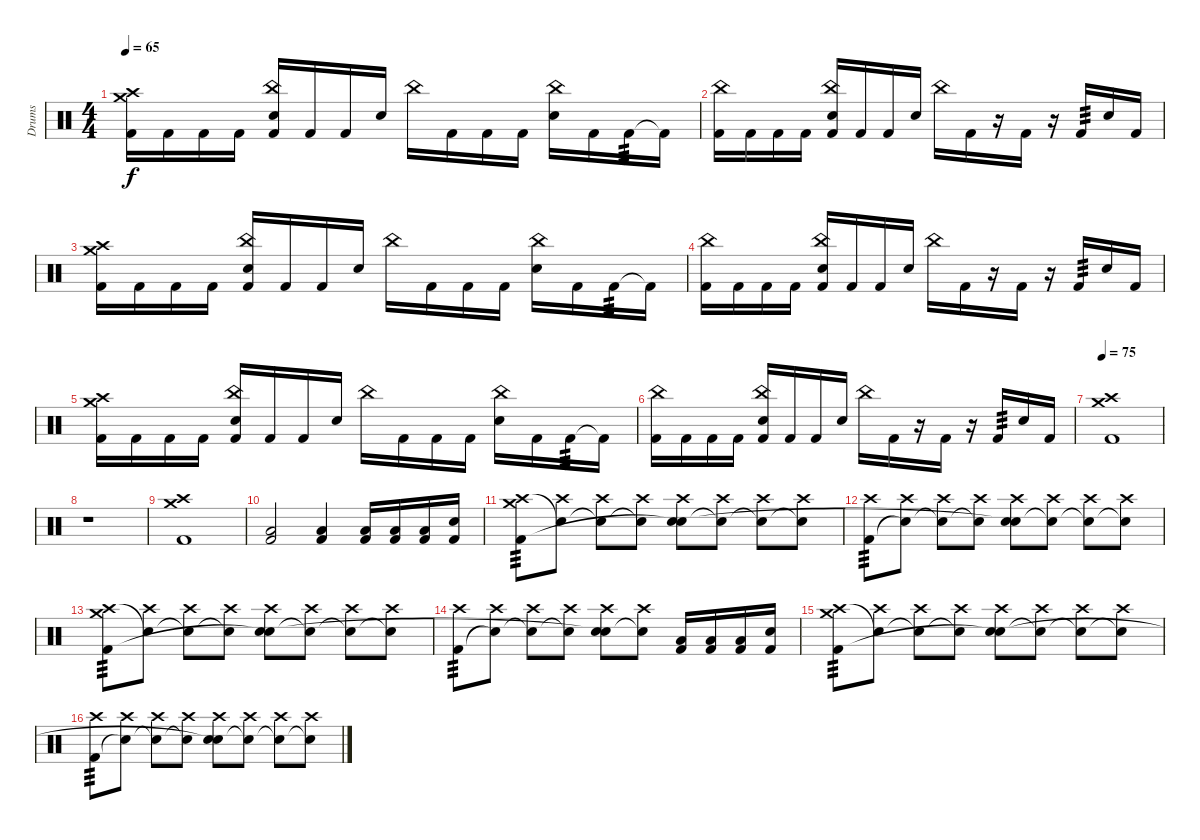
\track ("Drums" "Drums") {instrument percussion}
\staff {score}
\articulation defaults
\ts (4 4)
\tempo 65
\clef neutral
\ks c
("Crash medium (hit)" "Crash high (hit)" "Kick (hit) 2").16{dy f} "Kick (hit) 2".16 "Kick (hit) 2".16 "Kick (hit) 2".16 ("China (hit)" "Electric Snare (hit)" "Kick (hit) 2").16 "Kick (hit) 2".16 "Kick (hit) 2".16 "Electric Snare (hit)".16 "China (hit)".16 "Kick (hit) 2".16 "Kick (hit) 2".16 "Kick (hit) 2".16 ("China (hit)" "Electric Snare (hit)").16 "Kick (hit) 2".16 "Kick (hit) 2".16{tp 3} "Kick (hit) 2"{t}.16 |
("China (hit)" "Kick (hit) 2").16 "Kick (hit) 2".16 "Kick (hit) 2".16 "Kick (hit) 2".16 ("China (hit)" "Electric Snare (hit)" "Kick (hit) 2").16 "Kick (hit) 2".16 "Kick (hit) 2".16 "Electric Snare (hit)".16 "China (hit)".16 "Kick (hit) 2".16 r.16 "Kick (hit) 2".16 r.16 "Kick (hit) 2".16{tp 3} "Electric Snare (hit)".16 "Kick (hit) 2".16 |
("Crash medium (hit)" "Crash high (hit)" "Kick (hit) 2").16 "Kick (hit) 2".16 "Kick (hit) 2".16 "Kick (hit) 2".16 ("China (hit)" "Electric Snare (hit)" "Kick (hit) 2").16 "Kick (hit) 2".16 "Kick (hit) 2".16 "Electric Snare (hit)".16 "China (hit)".16 "Kick (hit) 2".16 "Kick (hit) 2".16 "Kick (hit) 2".16 ("China (hit)" "Electric Snare (hit)").16 "Kick (hit) 2".16 "Kick (hit) 2".16{tp 3} "Kick (hit) 2"{t}.16 |
("China (hit)" "Kick (hit) 2").16 "Kick (hit) 2".16 "Kick (hit) 2".16 "Kick (hit) 2".16 ("China (hit)" "Electric Snare (hit)" "Kick (hit) 2").16 "Kick (hit) 2".16 "Kick (hit) 2".16 "Electric Snare (hit)".16 "China (hit)".16 "Kick (hit) 2".16 r.16 "Kick (hit) 2".16 r.16 "Kick (hit) 2".16{tp 3} "Electric Snare (hit)".16 "Kick (hit) 2".16 |
("Crash medium (hit)" "Crash high (hit)" "Kick (hit) 2").16 "Kick (hit) 2".16 "Kick (hit) 2".16 "Kick (hit) 2".16 ("China (hit)" "Electric Snare (hit)" "Kick (hit) 2").16 "Kick (hit) 2".16 "Kick (hit) 2".16 "Electric Snare (hit)".16 "China (hit)".16 "Kick (hit) 2".16 "Kick (hit) 2".16 "Kick (hit) 2".16 ("China (hit)" "Electric Snare (hit)").16 "Kick (hit) 2".16 "Kick (hit) 2".16{tp 3} "Kick (hit) 2"{t}.16 |
("China (hit)" "Kick (hit) 2").16 "Kick (hit) 2".16 "Kick (hit) 2".16 "Kick (hit) 2".16 ("China (hit)" "Electric Snare (hit)" "Kick (hit) 2").16 "Kick (hit) 2".16 "Kick (hit) 2".16 "Electric Snare (hit)".16 "China (hit)".16 "Kick (hit) 2".16 r.16 "Kick (hit) 2".16 r.16 "Kick (hit) 2".16{tp 3} "Electric Snare (hit)".16 "Kick (hit) 2".16 |
\tempo 75
("Crash medium (hit)" "Crash high (hit)" "Kick (hit) 2").1 |
r.1 |
("Crash medium (hit)" "Crash high (hit)" "Kick (hit) 2").1 |
("Low Floor Tom (hit)" "Kick (hit) 2").2 ("Low Floor Tom (hit)" "Kick (hit) 2").4 ("Low Floor Tom (hit)" "Kick (hit) 2").16 ("Low Floor Tom (hit)" "Kick (hit) 2").16 ("Low Floor Tom (hit)" "Kick (hit) 2").16 ("Electric Snare (hit)" "Kick (hit) 2").16 |
("Crash medium (hit)" "Crash high (hit)" "Kick (hit) 2").8{tp 3} ("Crash high (hit)" "Snare (hit)"{t}).8 ("Crash high (hit)" "Snare (hit)"{t}).8 ("Crash high (hit)" "Snare (hit)"{t}).8 ("Crash high (hit)" "Electric Snare (hit)" "Snare (hit)"{t}).8 ("Crash high (hit)" "Snare (hit)"{t}).8 ("Crash high (hit)" "Snare (hit)"{t}).8 ("Crash high (hit)" "Snare (hit)"{t}).8 |
("Crash high (hit)" "Kick (hit) 2").8{tp 3} ("Crash high (hit)" "Snare (hit)"{t}).8 ("Crash high (hit)" "Snare (hit)"{t}).8 ("Crash high (hit)" "Snare (hit)"{t}).8 ("Crash high (hit)" "Electric Snare (hit)" "Snare (hit)"{t}).8 ("Crash high (hit)" "Snare (hit)"{t}).8 ("Crash high (hit)" "Snare (hit)"{t}).8 ("Crash high (hit)" "Snare (hit)"{t}).8 |
("Crash medium (hit)" "Crash high (hit)" "Kick (hit) 2").8{tp 3} ("Crash high (hit)" "Snare (hit)"{t}).8 ("Crash high (hit)" "Snare (hit)"{t}).8 ("Crash high (hit)" "Snare (hit)"{t}).8 ("Crash high (hit)" "Electric Snare (hit)" "Snare (hit)"{t}).8 ("Crash high (hit)" "Snare (hit)"{t}).8 ("Crash high (hit)" "Snare (hit)"{t}).8 ("Crash high (hit)" "Snare (hit)"{t}).8 |
("Crash high (hit)" "Kick (hit) 2").8{tp 3} ("Crash high (hit)" "Snare (hit)"{t}).8 ("Crash high (hit)" "Snare (hit)"{t}).8 ("Crash high (hit)" "Snare (hit)"{t}).8 ("Crash high (hit)" "Electric Snare (hit)" "Snare (hit)"{t}).8 ("Crash high (hit)" "Snare (hit)"{t}).8 ("Low Floor Tom (hit)" "Kick (hit) 2").16 ("Low Floor Tom (hit)" "Kick (hit) 2").16 ("Low Floor Tom (hit)" "Kick (hit) 2").16 ("Electric Snare (hit)" "Kick (hit) 2").16 |
("Crash medium (hit)" "Crash high (hit)" "Kick (hit) 2").8{tp 3} ("Crash high (hit)" "Snare (hit)"{t}).8 ("Crash high (hit)" "Snare (hit)"{t}).8 ("Crash high (hit)" "Snare (hit)"{t}).8 ("Crash high (hit)" "Electric Snare (hit)" "Snare (hit)"{t}).8 ("Crash high (hit)" "Snare (hit)"{t}).8 ("Crash high (hit)" "Snare (hit)"{t}).8 ("Crash high (hit)" "Snare (hit)"{t}).8 |
("Crash high (hit)" "Kick (hit) 2").8{tp 3} ("Crash high (hit)" "Snare (hit)"{t}).8 ("Crash high (hit)" "Snare (hit)"{t}).8 ("Crash high (hit)" "Snare (hit)"{t}).8 ("Crash high (hit)" "Electric Snare (hit)" "Snare (hit)"{t}).8 ("Crash high (hit)" "Snare (hit)"{t}).8 ("Crash high (hit)" "Snare (hit)"{t}).8 ("Crash high (hit)" "Snare (hit)"{t}).8
